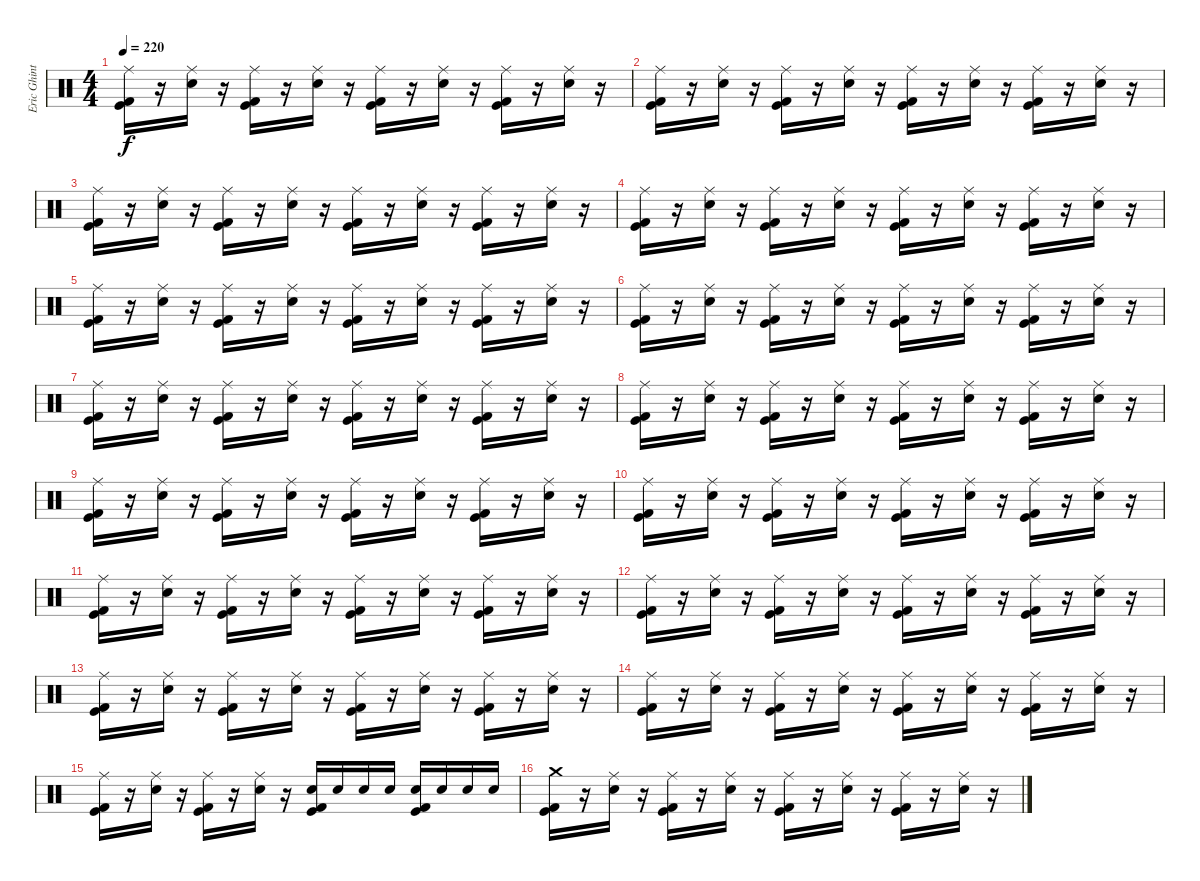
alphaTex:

\track ("Eric Ghint" "Eric Ghint") {instrument percussion}
\staff {score}
\articulation defaults
\ts (4 4)
\tempo 220
\clef neutral
\ks c
("Ride (middle)" "Kick (hit) 2" "Kick (hit)").16{dy f} r.16 ("Snare (hit) 2" "Ride (middle)").16 r.16 ("Kick (hit) 2" "Ride (middle)" "Kick (hit)").16 r.16 ("Snare (hit) 2" "Ride (middle)").16 r.16 ("Kick (hit) 2" "Ride (middle)" "Kick (hit)").16 r.16 ("Snare (hit) 2" "Ride (middle)").16 r.16 ("Kick (hit) 2" "Ride (middle)" "Kick (hit)").16 r.16 ("Snare (hit) 2" "Ride (middle)").16 r.16 |
("Ride (middle)" "Kick (hit) 2" "Kick (hit)").16 r.16 ("Snare (hit) 2" "Ride (middle)").16 r.16 ("Kick (hit) 2" "Ride (middle)" "Kick (hit)").16 r.16 ("Snare (hit) 2" "Ride (middle)").16 r.16 ("Kick (hit) 2" "Ride (middle)" "Kick (hit)").16 r.16 ("Snare (hit) 2" "Ride (middle)").16 r.16 ("Kick (hit) 2" "Ride (middle)" "Kick (hit)").16 r.16 ("Snare (hit) 2" "Ride (middle)").16 r.16 |
("Ride (middle)" "Kick (hit) 2" "Kick (hit)").16 r.16 ("Snare (hit) 2" "Ride (middle)").16 r.16 ("Kick (hit) 2" "Ride (middle)" "Kick (hit)").16 r.16 ("Snare (hit) 2" "Ride (middle)").16 r.16 ("Kick (hit) 2" "Ride (middle)" "Kick (hit)").16 r.16 ("Snare (hit) 2" "Ride (middle)").16 r.16 ("Kick (hit) 2" "Ride (middle)" "Kick (hit)").16 r.16 ("Snare (hit) 2" "Ride (middle)").16 r.16 |
("Ride (middle)" "Kick (hit) 2" "Kick (hit)").16 r.16 ("Snare (hit) 2" "Ride (middle)").16 r.16 ("Kick (hit) 2" "Ride (middle)" "Kick (hit)").16 r.16 ("Snare (hit) 2" "Ride (middle)").16 r.16 ("Kick (hit) 2" "Ride (middle)" "Kick (hit)").16 r.16 ("Snare (hit) 2" "Ride (middle)").16 r.16 ("Kick (hit) 2" "Ride (middle)" "Kick (hit)").16 r.16 ("Snare (hit) 2" "Ride (middle)").16 r.16 |
("Ride (middle)" "Kick (hit) 2" "Kick (hit)").16 r.16 ("Snare (hit) 2" "Ride (middle)").16 r.16 ("Kick (hit) 2" "Ride (middle)" "Kick (hit)").16 r.16 ("Snare (hit) 2" "Ride (middle)").16 r.16 ("Kick (hit) 2" "Ride (middle)" "Kick (hit)").16 r.16 ("Snare (hit) 2" "Ride (middle)").16 r.16 ("Kick (hit) 2" "Ride (middle)" "Kick (hit)").16 r.16 ("Snare (hit) 2" "Ride (middle)").16 r.16 |
("Ride (middle)" "Kick (hit) 2" "Kick (hit)").16 r.16 ("Snare (hit) 2" "Ride (middle)").16 r.16 ("Kick (hit) 2" "Ride (middle)" "Kick (hit)").16 r.16 ("Snare (hit) 2" "Ride (middle)").16 r.16 ("Kick (hit) 2" "Ride (middle)" "Kick (hit)").16 r.16 ("Snare (hit) 2" "Ride (middle)").16 r.16 ("Kick (hit) 2" "Ride (middle)" "Kick (hit)").16 r.16 ("Snare (hit) 2" "Ride (middle)").16 r.16 |
("Ride (middle)" "Kick (hit) 2" "Kick (hit)").16 r.16 ("Snare (hit) 2" "Ride (middle)").16 r.16 ("Kick (hit) 2" "Ride (middle)" "Kick (hit)").16 r.16 ("Snare (hit) 2" "Ride (middle)").16 r.16 ("Kick (hit) 2" "Ride (middle)" "Kick (hit)").16 r.16 ("Snare (hit) 2" "Ride (middle)").16 r.16 ("Kick (hit) 2" "Ride (middle)" "Kick (hit)").16 r.16 ("Snare (hit) 2" "Ride (middle)").16 r.16 |
("Ride (middle)" "Kick (hit) 2" "Kick (hit)").16 r.16 ("Snare (hit) 2" "Ride (middle)").16 r.16 ("Kick (hit) 2" "Ride (middle)" "Kick (hit)").16 r.16 ("Snare (hit) 2" "Ride (middle)").16 r.16 ("Kick (hit) 2" "Ride (middle)" "Kick (hit)").16 r.16 ("Snare (hit) 2" "Ride (middle)").16 r.16 ("Kick (hit) 2" "Ride (middle)" "Kick (hit)").16 r.16 ("Snare (hit) 2" "Ride (middle)").16 r.16 |
("Ride (middle)" "Kick (hit) 2" "Kick (hit)").16 r.16 ("Snare (hit) 2" "Ride (middle)").16 r.16 ("Kick (hit) 2" "Ride (middle)" "Kick (hit)").16 r.16 ("Snare (hit) 2" "Ride (middle)").16 r.16 ("Kick (hit) 2" "Ride (middle)" "Kick (hit)").16 r.16 ("Snare (hit) 2" "Ride (middle)").16 r.16 ("Kick (hit) 2" "Ride (middle)" "Kick (hit)").16 r.16 ("Snare (hit) 2" "Ride (middle)").16 r.16 |
("Ride (middle)" "Kick (hit) 2" "Kick (hit)").16 r.16 ("Snare (hit) 2" "Ride (middle)").16 r.16 ("Kick (hit) 2" "Ride (middle)" "Kick (hit)").16 r.16 ("Snare (hit) 2" "Ride (middle)").16 r.16 ("Kick (hit) 2" "Ride (middle)" "Kick (hit)").16 r.16 ("Snare (hit) 2" "Ride (middle)").16 r.16 ("Kick (hit) 2" "Ride (middle)" "Kick (hit)").16 r.16 ("Snare (hit) 2" "Ride (middle)").16 r.16 |
("Ride (middle)" "Kick (hit) 2" "Kick (hit)").16 r.16 ("Snare (hit) 2" "Ride (middle)").16 r.16 ("Kick (hit) 2" "Ride (middle)" "Kick (hit)").16 r.16 ("Snare (hit) 2" "Ride (middle)").16 r.16 ("Kick (hit) 2" "Ride (middle)" "Kick (hit)").16 r.16 ("Snare (hit) 2" "Ride (middle)").16 r.16 ("Kick (hit) 2" "Ride (middle)" "Kick (hit)").16 r.16 ("Snare (hit) 2" "Ride (middle)").16 r.16 |
("Ride (middle)" "Kick (hit) 2" "Kick (hit)").16 r.16 ("Snare (hit) 2" "Ride (middle)").16 r.16 ("Kick (hit) 2" "Ride (middle)" "Kick (hit)").16 r.16 ("Snare (hit) 2" "Ride (middle)").16 r.16 ("Kick (hit) 2" "Ride (middle)" "Kick (hit)").16 r.16 ("Snare (hit) 2" "Ride (middle)").16 r.16 ("Kick (hit) 2" "Ride (middle)" "Kick (hit)").16 r.16 ("Snare (hit) 2" "Ride (middle)").16 r.16 |
("Ride (middle)" "Kick (hit) 2" "Kick (hit)").16 r.16 ("Snare (hit) 2" "Ride (middle)").16 r.16 ("Kick (hit) 2" "Ride (middle)" "Kick (hit)").16 r.16 ("Snare (hit) 2" "Ride (middle)").16 r.16 ("Kick (hit) 2" "Ride (middle)" "Kick (hit)").16 r.16 ("Snare (hit) 2" "Ride (middle)").16 r.16 ("Kick (hit) 2" "Ride (middle)" "Kick (hit)").16 r.16 ("Snare (hit) 2" "Ride (middle)").16 r.16 |
("Ride (middle)" "Kick (hit) 2" "Kick (hit)").16 r.16 ("Snare (hit) 2" "Ride (middle)").16 r.16 ("Kick (hit) 2" "Ride (middle)" "Kick (hit)").16 r.16 ("Snare (hit) 2" "Ride (middle)").16 r.16 ("Kick (hit) 2" "Ride (middle)" "Kick (hit)").16 r.16 ("Snare (hit) 2" "Ride (middle)").16 r.16 ("Kick (hit) 2" "Ride (middle)" "Kick (hit)").16 r.16 ("Snare (hit) 2" "Ride (middle)").16 r.16 |
("Ride (middle)" "Kick (hit) 2" "Kick (hit)").16 r.16 ("Snare (hit) 2" "Ride (middle)").16 r.16 ("Kick (hit) 2" "Ride (middle)" "Kick (hit)").16 r.16 ("Snare (hit) 2" "Ride (middle)").16 r.16 ("Snare (hit) 2" "Kick (hit) 2" "Kick (hit)").16 "Snare (hit) 2".16 "Snare (hit) 2".16 "Snare (hit) 2".16 ("Snare (hit) 2" "Kick (hit) 2" "Kick (hit)").16 "Snare (hit) 2".16 "Snare (hit) 2".16 "Snare (hit) 2".16 |
("Crash medium (hit)" "Kick (hit) 2" "Kick (hit)").16 r.16 ("Snare (hit) 2" "Ride (middle)").16 r.16 ("Kick (hit) 2" "Ride (middle)" "Kick (hit)").16 r.16 ("Snare (hit) 2" "Ride (middle)").16 r.16 ("Kick (hit) 2" "Ride (middle)" "Kick (hit)").16 r.16 ("Snare (hit) 2" "Ride (middle)").16 r.16 ("Kick (hit) 2" "Ride (middle)" "Kick (hit)").16 r.16 ("Snare (hit) 2" "Ride (middle)").16 r.16
